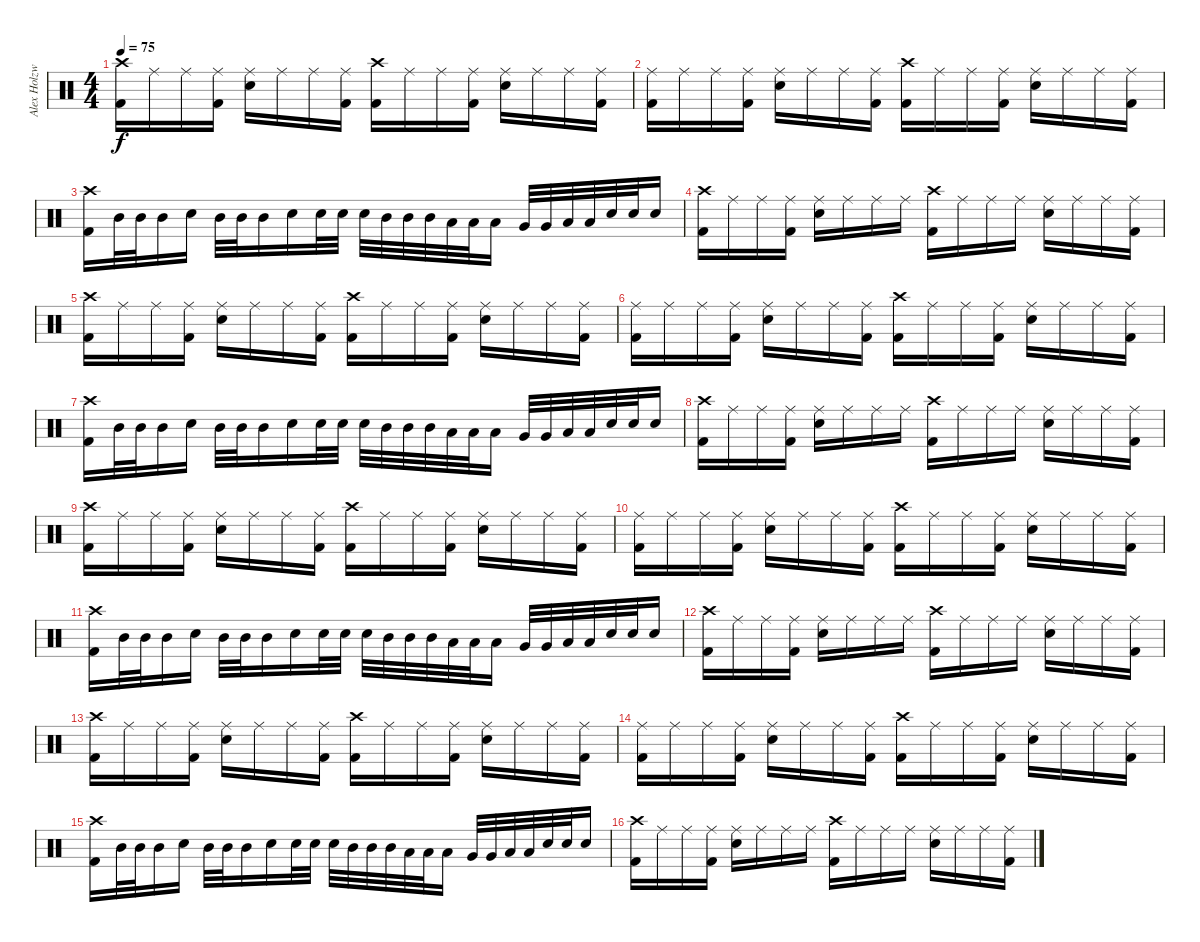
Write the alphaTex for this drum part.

\track ("Alex Holzwarth (Drums)" "Alex Holzw") {instrument percussion}
\staff {score}
\articulation defaults
\ts (4 4)
\tempo 75
\clef neutral
\ks c
("Crash high (hit)" "Kick (hit) 2").16{dy f} "Ride (middle)".16 "Ride (middle)".16 ("Ride (middle)" "Kick (hit) 2").16 ("Ride (middle)" "Electric Snare (hit)").16 "Ride (middle)".16 "Ride (middle)".16 ("Ride (middle)" "Kick (hit) 2").16 ("Crash high (hit)" "Kick (hit) 2").16 "Ride (middle)".16 "Ride (middle)".16 ("Ride (middle)" "Kick (hit) 2").16 ("Ride (middle)" "Electric Snare (hit)").16 "Ride (middle)".16 "Ride (middle)".16 ("Ride (middle)" "Kick (hit) 2").16 |
("Ride (middle)" "Kick (hit) 2").16 "Ride (middle)".16 "Ride (middle)".16 ("Ride (middle)" "Kick (hit) 2").16 ("Ride (middle)" "Electric Snare (hit)").16 "Ride (middle)".16 "Ride (middle)".16 ("Ride (middle)" "Kick (hit) 2").16 ("Crash high (hit)" "Kick (hit) 2").16 "Ride (middle)".16 "Ride (middle)".16 ("Ride (middle)" "Kick (hit) 2").16 ("Ride (middle)" "Electric Snare (hit)").16 "Ride (middle)".16 "Ride (middle)".16 ("Ride (middle)" "Kick (hit) 2").16 |
("Crash high (hit)" "Kick (hit) 2").16 "Mid Tom (hit)".32 "Mid Tom (hit)".32 "Mid Tom (hit)".16 "Electric Snare (hit)".16 "Mid Tom (hit)".32 "Mid Tom (hit)".32 "Mid Tom (hit)".16 "Electric Snare (hit)".16 "Electric Snare (hit)".32 "Electric Snare (hit)".32 "Electric Snare (hit)".32 "Mid Tom (hit)".32 "Mid Tom (hit)".32 "Mid Tom (hit)".32 "Low Tom (hit)".32 "Low Tom (hit)".32 "Low Tom (hit)".16 "Very Low Tom (hit)".32 "Very Low Tom (hit)".32 "Low Floor Tom (hit)".32 "Low Floor Tom (hit)".32 "Electric Snare (hit)".32 "Electric Snare (hit)".32 "Electric Snare (hit)".16 |
("Crash high (hit)" "Kick (hit) 2").16 "Ride (middle)".16 "Ride (middle)".16 ("Ride (middle)" "Kick (hit) 2").16 ("Ride (middle)" "Electric Snare (hit)").16 "Ride (middle)".16 "Ride (middle)".16 "Ride (middle)".16 ("Crash high (hit)" "Kick (hit) 2").16 "Ride (middle)".16 "Ride (middle)".16 "Ride (middle)".16 ("Ride (middle)" "Electric Snare (hit)").16 "Ride (middle)".16 "Ride (middle)".16 ("Ride (middle)" "Kick (hit) 2").16 |
("Crash high (hit)" "Kick (hit) 2").16 "Ride (middle)".16 "Ride (middle)".16 ("Ride (middle)" "Kick (hit) 2").16 ("Ride (middle)" "Electric Snare (hit)").16 "Ride (middle)".16 "Ride (middle)".16 ("Ride (middle)" "Kick (hit) 2").16 ("Crash high (hit)" "Kick (hit) 2").16 "Ride (middle)".16 "Ride (middle)".16 ("Ride (middle)" "Kick (hit) 2").16 ("Ride (middle)" "Electric Snare (hit)").16 "Ride (middle)".16 "Ride (middle)".16 ("Ride (middle)" "Kick (hit) 2").16 |
("Ride (middle)" "Kick (hit) 2").16 "Ride (middle)".16 "Ride (middle)".16 ("Ride (middle)" "Kick (hit) 2").16 ("Ride (middle)" "Electric Snare (hit)").16 "Ride (middle)".16 "Ride (middle)".16 ("Ride (middle)" "Kick (hit) 2").16 ("Crash high (hit)" "Kick (hit) 2").16 "Ride (middle)".16 "Ride (middle)".16 ("Ride (middle)" "Kick (hit) 2").16 ("Ride (middle)" "Electric Snare (hit)").16 "Ride (middle)".16 "Ride (middle)".16 ("Ride (middle)" "Kick (hit) 2").16 |
("Crash high (hit)" "Kick (hit) 2").16 "Mid Tom (hit)".32 "Mid Tom (hit)".32 "Mid Tom (hit)".16 "Electric Snare (hit)".16 "Mid Tom (hit)".32 "Mid Tom (hit)".32 "Mid Tom (hit)".16 "Electric Snare (hit)".16 "Electric Snare (hit)".32 "Electric Snare (hit)".32 "Electric Snare (hit)".32 "Mid Tom (hit)".32 "Mid Tom (hit)".32 "Mid Tom (hit)".32 "Low Tom (hit)".32 "Low Tom (hit)".32 "Low Tom (hit)".16 "Very Low Tom (hit)".32 "Very Low Tom (hit)".32 "Low Floor Tom (hit)".32 "Low Floor Tom (hit)".32 "Electric Snare (hit)".32 "Electric Snare (hit)".32 "Electric Snare (hit)".16 |
("Crash high (hit)" "Kick (hit) 2").16 "Ride (middle)".16 "Ride (middle)".16 ("Ride (middle)" "Kick (hit) 2").16 ("Ride (middle)" "Electric Snare (hit)").16 "Ride (middle)".16 "Ride (middle)".16 "Ride (middle)".16 ("Crash high (hit)" "Kick (hit) 2").16 "Ride (middle)".16 "Ride (middle)".16 "Ride (middle)".16 ("Ride (middle)" "Electric Snare (hit)").16 "Ride (middle)".16 "Ride (middle)".16 ("Ride (middle)" "Kick (hit) 2").16 |
("Crash high (hit)" "Kick (hit) 2").16 "Ride (middle)".16 "Ride (middle)".16 ("Ride (middle)" "Kick (hit) 2").16 ("Ride (middle)" "Electric Snare (hit)").16 "Ride (middle)".16 "Ride (middle)".16 ("Ride (middle)" "Kick (hit) 2").16 ("Crash high (hit)" "Kick (hit) 2").16 "Ride (middle)".16 "Ride (middle)".16 ("Ride (middle)" "Kick (hit) 2").16 ("Ride (middle)" "Electric Snare (hit)").16 "Ride (middle)".16 "Ride (middle)".16 ("Ride (middle)" "Kick (hit) 2").16 |
("Ride (middle)" "Kick (hit) 2").16 "Ride (middle)".16 "Ride (middle)".16 ("Ride (middle)" "Kick (hit) 2").16 ("Ride (middle)" "Electric Snare (hit)").16 "Ride (middle)".16 "Ride (middle)".16 ("Ride (middle)" "Kick (hit) 2").16 ("Crash high (hit)" "Kick (hit) 2").16 "Ride (middle)".16 "Ride (middle)".16 ("Ride (middle)" "Kick (hit) 2").16 ("Ride (middle)" "Electric Snare (hit)").16 "Ride (middle)".16 "Ride (middle)".16 ("Ride (middle)" "Kick (hit) 2").16 |
("Crash high (hit)" "Kick (hit) 2").16 "Mid Tom (hit)".32 "Mid Tom (hit)".32 "Mid Tom (hit)".16 "Electric Snare (hit)".16 "Mid Tom (hit)".32 "Mid Tom (hit)".32 "Mid Tom (hit)".16 "Electric Snare (hit)".16 "Electric Snare (hit)".32 "Electric Snare (hit)".32 "Electric Snare (hit)".32 "Mid Tom (hit)".32 "Mid Tom (hit)".32 "Mid Tom (hit)".32 "Low Tom (hit)".32 "Low Tom (hit)".32 "Low Tom (hit)".16 "Very Low Tom (hit)".32 "Very Low Tom (hit)".32 "Low Floor Tom (hit)".32 "Low Floor Tom (hit)".32 "Electric Snare (hit)".32 "Electric Snare (hit)".32 "Electric Snare (hit)".16 |
("Crash high (hit)" "Kick (hit) 2").16 "Ride (middle)".16 "Ride (middle)".16 ("Ride (middle)" "Kick (hit) 2").16 ("Ride (middle)" "Electric Snare (hit)").16 "Ride (middle)".16 "Ride (middle)".16 "Ride (middle)".16 ("Crash high (hit)" "Kick (hit) 2").16 "Ride (middle)".16 "Ride (middle)".16 "Ride (middle)".16 ("Ride (middle)" "Electric Snare (hit)").16 "Ride (middle)".16 "Ride (middle)".16 ("Ride (middle)" "Kick (hit) 2").16 |
("Crash high (hit)" "Kick (hit) 2").16 "Ride (middle)".16 "Ride (middle)".16 ("Ride (middle)" "Kick (hit) 2").16 ("Ride (middle)" "Electric Snare (hit)").16 "Ride (middle)".16 "Ride (middle)".16 ("Ride (middle)" "Kick (hit) 2").16 ("Crash high (hit)" "Kick (hit) 2").16 "Ride (middle)".16 "Ride (middle)".16 ("Ride (middle)" "Kick (hit) 2").16 ("Ride (middle)" "Electric Snare (hit)").16 "Ride (middle)".16 "Ride (middle)".16 ("Ride (middle)" "Kick (hit) 2").16 |
("Ride (middle)" "Kick (hit) 2").16 "Ride (middle)".16 "Ride (middle)".16 ("Ride (middle)" "Kick (hit) 2").16 ("Ride (middle)" "Electric Snare (hit)").16 "Ride (middle)".16 "Ride (middle)".16 ("Ride (middle)" "Kick (hit) 2").16 ("Crash high (hit)" "Kick (hit) 2").16 "Ride (middle)".16 "Ride (middle)".16 ("Ride (middle)" "Kick (hit) 2").16 ("Ride (middle)" "Electric Snare (hit)").16 "Ride (middle)".16 "Ride (middle)".16 ("Ride (middle)" "Kick (hit) 2").16 |
("Crash high (hit)" "Kick (hit) 2").16 "Mid Tom (hit)".32 "Mid Tom (hit)".32 "Mid Tom (hit)".16 "Electric Snare (hit)".16 "Mid Tom (hit)".32 "Mid Tom (hit)".32 "Mid Tom (hit)".16 "Electric Snare (hit)".16 "Electric Snare (hit)".32 "Electric Snare (hit)".32 "Electric Snare (hit)".32 "Mid Tom (hit)".32 "Mid Tom (hit)".32 "Mid Tom (hit)".32 "Low Tom (hit)".32 "Low Tom (hit)".32 "Low Tom (hit)".16 "Very Low Tom (hit)".32 "Very Low Tom (hit)".32 "Low Floor Tom (hit)".32 "Low Floor Tom (hit)".32 "Electric Snare (hit)".32 "Electric Snare (hit)".32 "Electric Snare (hit)".16 |
("Crash high (hit)" "Kick (hit) 2").16 "Ride (middle)".16 "Ride (middle)".16 ("Ride (middle)" "Kick (hit) 2").16 ("Ride (middle)" "Electric Snare (hit)").16 "Ride (middle)".16 "Ride (middle)".16 "Ride (middle)".16 ("Crash high (hit)" "Kick (hit) 2").16 "Ride (middle)".16 "Ride (middle)".16 "Ride (middle)".16 ("Ride (middle)" "Electric Snare (hit)").16 "Ride (middle)".16 "Ride (middle)".16 ("Ride (middle)" "Kick (hit) 2").16
